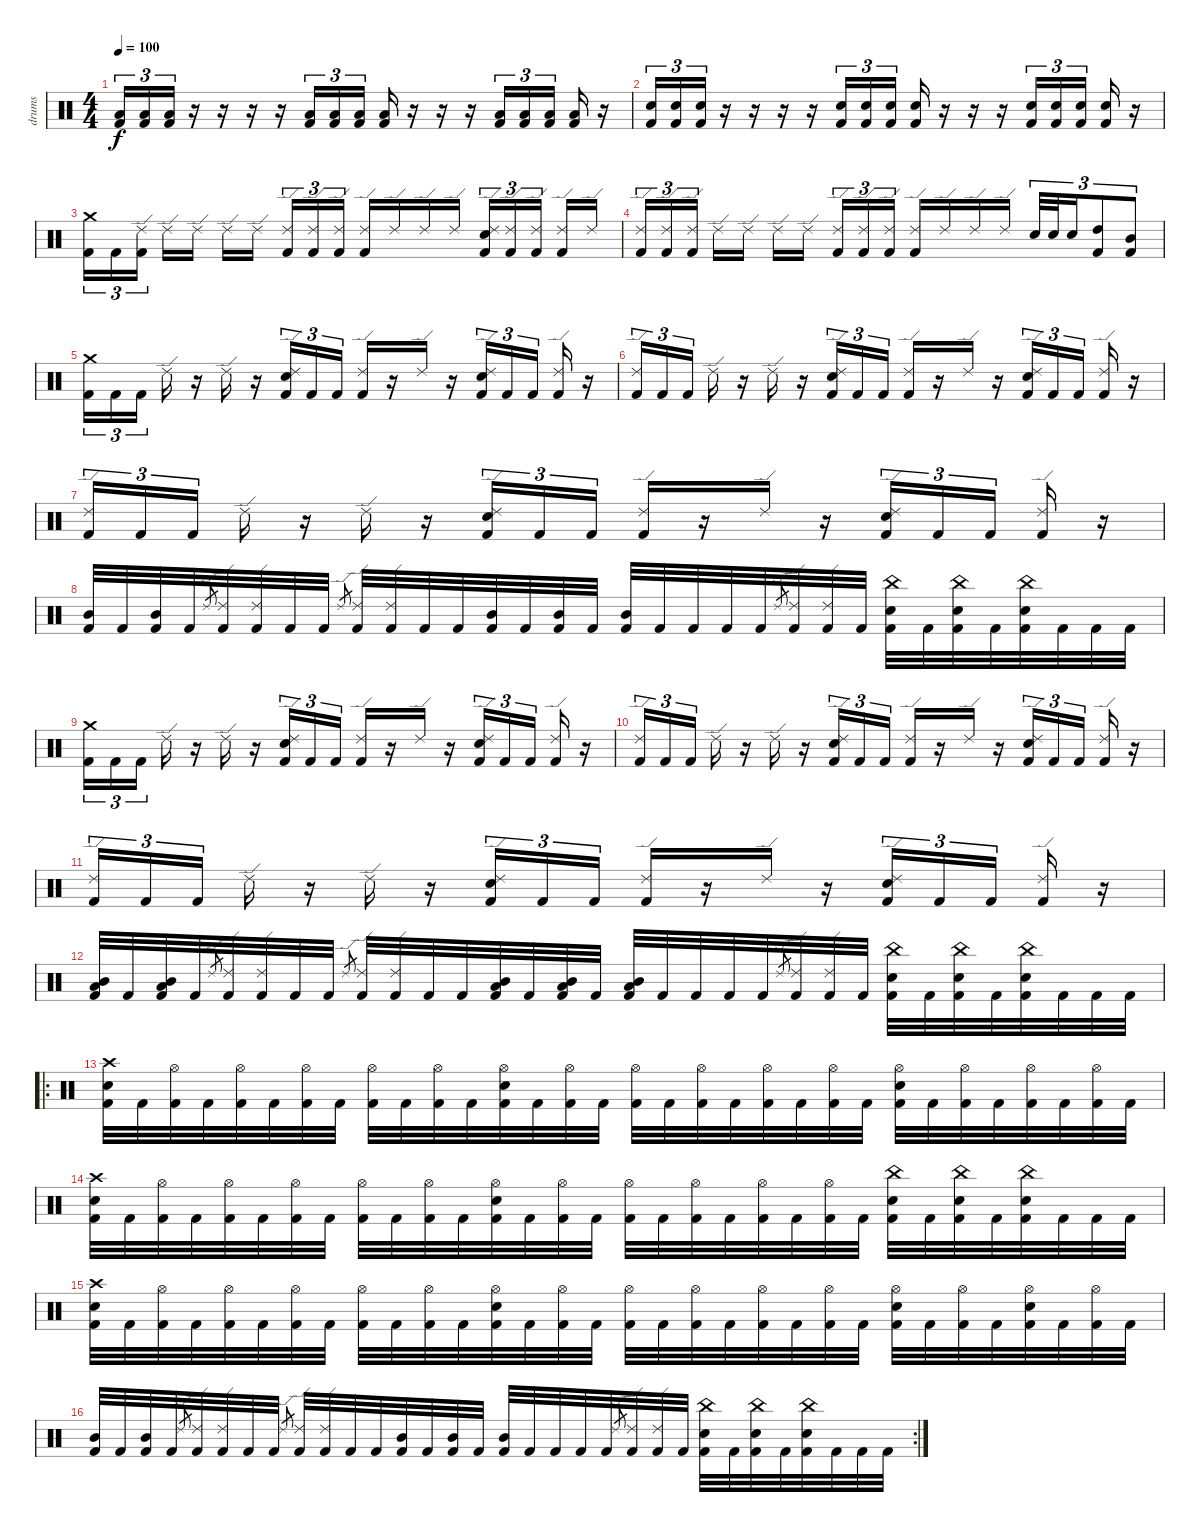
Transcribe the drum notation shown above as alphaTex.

\track ("drums" "drums") {instrument percussion}
\staff {score}
\articulation defaults
\ts (4 4)
\tempo 100
\clef neutral
\ks c
("Kick (hit) 2" "Low Tom (hit)").16{tu (3 2) dy f} ("Kick (hit) 2" "Low Tom (hit)").16{tu (3 2)} ("Kick (hit) 2" "Low Tom (hit)").16{tu (3 2)} r.16 r.16 r.16 r.16 ("Kick (hit) 2" "Low Tom (hit)").16{tu (3 2)} ("Kick (hit) 2" "Low Tom (hit)").16{tu (3 2)} ("Kick (hit) 2" "Low Tom (hit)").16{tu (3 2)} ("Kick (hit) 2" "Low Tom (hit)").16 r.16 r.16 r.16 ("Kick (hit) 2" "Low Tom (hit)").16{tu (3 2)} ("Kick (hit) 2" "Low Tom (hit)").16{tu (3 2)} ("Kick (hit) 2" "Low Tom (hit)").16{tu (3 2)} ("Kick (hit) 2" "Low Tom (hit)").16 r.16 |
("Kick (hit) 2" "Electric Snare (hit)").16{tu (3 2)} ("Kick (hit) 2" "Electric Snare (hit)").16{tu (3 2)} ("Kick (hit) 2" "Electric Snare (hit)").16{tu (3 2)} r.16 r.16 r.16 r.16 ("Kick (hit) 2" "Electric Snare (hit)").16{tu (3 2)} ("Kick (hit) 2" "Electric Snare (hit)").16{tu (3 2)} ("Kick (hit) 2" "Electric Snare (hit)").16{tu (3 2)} ("Kick (hit) 2" "Electric Snare (hit)").16 r.16 r.16 r.16 ("Kick (hit) 2" "Electric Snare (hit)").16{tu (3 2)} ("Kick (hit) 2" "Electric Snare (hit)").16{tu (3 2)} ("Kick (hit) 2" "Electric Snare (hit)").16{tu (3 2)} ("Kick (hit) 2" "Electric Snare (hit)").16 r.16 |
("Kick (hit) 2" "Crash medium (hit)").16{tu (3 2)} "Kick (hit) 2".16{tu (3 2)} ("Kick (hit) 2" "Ride (edge) 2").16{tu (3 2)} "Ride (edge) 2".16 "Ride (edge) 2".16 "Ride (edge) 2".16 "Ride (edge) 2".16 ("Kick (hit) 2" "Ride (edge) 2").16{tu (3 2)} ("Kick (hit) 2" "Ride (edge) 2").16{tu (3 2)} ("Kick (hit) 2" "Ride (edge) 2").16{tu (3 2)} ("Kick (hit) 2" "Ride (edge) 2").16 "Ride (edge) 2".16 "Ride (edge) 2".16 "Ride (edge) 2".16 ("Kick (hit) 2" "Electric Snare (hit)" "Ride (edge) 2").16{tu (3 2)} ("Kick (hit) 2" "Ride (edge) 2").16{tu (3 2)} ("Kick (hit) 2" "Ride (edge) 2").16{tu (3 2)} ("Kick (hit) 2" "Ride (edge) 2").16 "Ride (edge) 2".16 |
("Kick (hit) 2" "Ride (edge) 2").16{tu (3 2)} ("Kick (hit) 2" "Ride (edge) 2").16{tu (3 2)} ("Kick (hit) 2" "Ride (edge) 2").16{tu (3 2)} "Ride (edge) 2".16 "Ride (edge) 2".16 "Ride (edge) 2".16 "Ride (edge) 2".16 ("Kick (hit) 2" "Ride (edge) 2").16{tu (3 2)} ("Kick (hit) 2" "Ride (edge) 2").16{tu (3 2)} ("Kick (hit) 2" "Ride (edge) 2").16{tu (3 2)} ("Kick (hit) 2" "Ride (edge) 2").16 "Ride (edge) 2".16 "Ride (edge) 2".16 "Ride (edge) 2".16 "Electric Snare (hit)".32{tu (3 2)} "Electric Snare (hit)".32{tu (3 2)} "Electric Snare (hit)".16{tu (3 2)} ("Kick (hit) 2" "High Tom (hit)").8{tu (3 2)} ("Kick (hit) 2" "Mid Tom (hit)").8{tu (3 2)} |
\section ("" "")
("Kick (hit) 2" "Crash medium (hit)").16{tu (3 2)} "Kick (hit) 2".16{tu (3 2)} "Kick (hit) 2".16{tu (3 2)} "Ride (edge) 2".16 r.16 "Ride (edge) 2".16 r.16 ("Kick (hit) 2" "Electric Snare (hit)" "Ride (edge) 2").16{tu (3 2)} "Kick (hit) 2".16{tu (3 2)} "Kick (hit) 2".16{tu (3 2)} ("Kick (hit) 2" "Ride (edge) 2").16 r.16 "Ride (edge) 2".16 r.16 ("Kick (hit) 2" "Electric Snare (hit)" "Ride (edge) 2").16{tu (3 2)} "Kick (hit) 2".16{tu (3 2)} "Kick (hit) 2".16{tu (3 2)} ("Kick (hit) 2" "Ride (edge) 2").16 r.16 |
("Kick (hit) 2" "Ride (edge) 2").16{tu (3 2)} "Kick (hit) 2".16{tu (3 2)} "Kick (hit) 2".16{tu (3 2)} "Ride (edge) 2".16 r.16 "Ride (edge) 2".16 r.16 ("Kick (hit) 2" "Electric Snare (hit)" "Ride (edge) 2").16{tu (3 2)} "Kick (hit) 2".16{tu (3 2)} "Kick (hit) 2".16{tu (3 2)} ("Kick (hit) 2" "Ride (edge) 2").16 r.16 "Ride (edge) 2".16 r.16 ("Kick (hit) 2" "Electric Snare (hit)" "Ride (edge) 2").16{tu (3 2)} "Kick (hit) 2".16{tu (3 2)} "Kick (hit) 2".16{tu (3 2)} ("Kick (hit) 2" "Ride (edge) 2").16 r.16 |
("Kick (hit) 2" "Ride (edge) 2").16{tu (3 2)} "Kick (hit) 2".16{tu (3 2)} "Kick (hit) 2".16{tu (3 2)} "Ride (edge) 2".16 r.16 "Ride (edge) 2".16 r.16 ("Kick (hit) 2" "Electric Snare (hit)" "Ride (edge) 2").16{tu (3 2)} "Kick (hit) 2".16{tu (3 2)} "Kick (hit) 2".16{tu (3 2)} ("Kick (hit) 2" "Ride (edge) 2").16 r.16 "Ride (edge) 2".16 r.16 ("Kick (hit) 2" "Electric Snare (hit)" "Ride (edge) 2").16{tu (3 2)} "Kick (hit) 2".16{tu (3 2)} "Kick (hit) 2".16{tu (3 2)} ("Kick (hit) 2" "Ride (edge) 2").16 r.16 |
("Kick (hit) 2" "Mid Tom (hit)").32 "Kick (hit) 2".32 ("Kick (hit) 2" "Mid Tom (hit)").32 "Kick (hit) 2".32 "Ride (edge) 2".8{gr} ("Kick (hit) 2" "Ride (edge) 2").32 ("Kick (hit) 2" "Ride (edge) 2").32 "Kick (hit) 2".32 "Kick (hit) 2".32 "Ride (edge) 2".8{gr} ("Kick (hit) 2" "Ride (edge) 2").32 ("Kick (hit) 2" "Ride (edge) 2").32 "Kick (hit) 2".32 "Kick (hit) 2".32 ("Kick (hit) 2" "Mid Tom (hit)").32 "Kick (hit) 2".32 ("Kick (hit) 2" "Mid Tom (hit)").32 "Kick (hit) 2".32 ("Kick (hit) 2" "Mid Tom (hit)").32 "Kick (hit) 2".32 "Kick (hit) 2".32 "Kick (hit) 2".32 "Kick (hit) 2".32 "Ride (edge) 2".8{gr} ("Kick (hit) 2" "Ride (edge) 2").32 ("Kick (hit) 2" "Ride (edge) 2").32 "Kick (hit) 2".32 ("Kick (hit) 2" "Electric Snare (hit)" "China (hit)").32 "Kick (hit) 2".32 ("Kick (hit) 2" "Electric Snare (hit)" "China (hit)").32 "Kick (hit) 2".32 ("Kick (hit) 2" "Electric Snare (hit)" "China (hit)").32 "Kick (hit) 2".32 "Kick (hit) 2".32 "Kick (hit) 2".32 |
("Kick (hit) 2" "Crash medium (hit)").16{tu (3 2)} "Kick (hit) 2".16{tu (3 2)} "Kick (hit) 2".16{tu (3 2)} "Ride (edge) 2".16 r.16 "Ride (edge) 2".16 r.16 ("Kick (hit) 2" "Electric Snare (hit)" "Ride (edge) 2").16{tu (3 2)} "Kick (hit) 2".16{tu (3 2)} "Kick (hit) 2".16{tu (3 2)} ("Kick (hit) 2" "Ride (edge) 2").16 r.16 "Ride (edge) 2".16 r.16 ("Kick (hit) 2" "Electric Snare (hit)" "Ride (edge) 2").16{tu (3 2)} "Kick (hit) 2".16{tu (3 2)} "Kick (hit) 2".16{tu (3 2)} ("Kick (hit) 2" "Ride (edge) 2").16 r.16 |
("Kick (hit) 2" "Ride (edge) 2").16{tu (3 2)} "Kick (hit) 2".16{tu (3 2)} "Kick (hit) 2".16{tu (3 2)} "Ride (edge) 2".16 r.16 "Ride (edge) 2".16 r.16 ("Kick (hit) 2" "Electric Snare (hit)" "Ride (edge) 2").16{tu (3 2)} "Kick (hit) 2".16{tu (3 2)} "Kick (hit) 2".16{tu (3 2)} ("Kick (hit) 2" "Ride (edge) 2").16 r.16 "Ride (edge) 2".16 r.16 ("Kick (hit) 2" "Electric Snare (hit)" "Ride (edge) 2").16{tu (3 2)} "Kick (hit) 2".16{tu (3 2)} "Kick (hit) 2".16{tu (3 2)} ("Kick (hit) 2" "Ride (edge) 2").16 r.16 |
("Kick (hit) 2" "Ride (edge) 2").16{tu (3 2)} "Kick (hit) 2".16{tu (3 2)} "Kick (hit) 2".16{tu (3 2)} "Ride (edge) 2".16 r.16 "Ride (edge) 2".16 r.16 ("Kick (hit) 2" "Electric Snare (hit)" "Ride (edge) 2").16{tu (3 2)} "Kick (hit) 2".16{tu (3 2)} "Kick (hit) 2".16{tu (3 2)} ("Kick (hit) 2" "Ride (edge) 2").16 r.16 "Ride (edge) 2".16 r.16 ("Kick (hit) 2" "Electric Snare (hit)" "Ride (edge) 2").16{tu (3 2)} "Kick (hit) 2".16{tu (3 2)} "Kick (hit) 2".16{tu (3 2)} ("Kick (hit) 2" "Ride (edge) 2").16 r.16 |
("Kick (hit) 2" "Mid Tom (hit)" "Low Tom (hit)").32 "Kick (hit) 2".32 ("Kick (hit) 2" "Mid Tom (hit)" "Low Tom (hit)").32 "Kick (hit) 2".32 "Ride (edge) 2".8{gr} ("Kick (hit) 2" "Ride (edge) 2").32 ("Kick (hit) 2" "Ride (edge) 2").32 "Kick (hit) 2".32 "Kick (hit) 2".32 "Ride (edge) 2".8{gr} ("Kick (hit) 2" "Ride (edge) 2").32 ("Kick (hit) 2" "Ride (edge) 2").32 "Kick (hit) 2".32 "Kick (hit) 2".32 ("Kick (hit) 2" "Mid Tom (hit)" "Low Tom (hit)").32 "Kick (hit) 2".32 ("Kick (hit) 2" "Mid Tom (hit)" "Low Tom (hit)").32 "Kick (hit) 2".32 ("Kick (hit) 2" "Mid Tom (hit)" "Low Tom (hit)").32 "Kick (hit) 2".32 "Kick (hit) 2".32 "Kick (hit) 2".32 "Kick (hit) 2".32 "Ride (edge) 2".8{gr} ("Kick (hit) 2" "Ride (edge) 2").32 ("Kick (hit) 2" "Ride (edge) 2").32 "Kick (hit) 2".32 ("Kick (hit) 2" "Electric Snare (hit)" "China (hit)").32 "Kick (hit) 2".32 ("Kick (hit) 2" "Electric Snare (hit)" "China (hit)").32 "Kick (hit) 2".32 ("Kick (hit) 2" "Electric Snare (hit)" "China (hit)").32 "Kick (hit) 2".32 "Kick (hit) 2".32 "Kick (hit) 2".32 |
\ro
\section ("" "")
("Kick (hit) 2" "Electric Snare (hit)" "Crash high (hit)").32 "Kick (hit) 2".32 ("Kick (hit) 2" "Hi-Hat (open)").32 "Kick (hit) 2".32 ("Kick (hit) 2" "Hi-Hat (open)").32 "Kick (hit) 2".32 ("Kick (hit) 2" "Hi-Hat (open)").32 "Kick (hit) 2".32 ("Kick (hit) 2" "Hi-Hat (open)").32 "Kick (hit) 2".32 ("Kick (hit) 2" "Hi-Hat (open)").32 "Kick (hit) 2".32 ("Kick (hit) 2" "Electric Snare (hit)" "Hi-Hat (open)").32 "Kick (hit) 2".32 ("Kick (hit) 2" "Hi-Hat (open)").32 "Kick (hit) 2".32 ("Kick (hit) 2" "Hi-Hat (open)").32 "Kick (hit) 2".32 ("Kick (hit) 2" "Hi-Hat (open)").32 "Kick (hit) 2".32 ("Kick (hit) 2" "Hi-Hat (open)").32 "Kick (hit) 2".32 ("Kick (hit) 2" "Hi-Hat (open)").32 "Kick (hit) 2".32 ("Kick (hit) 2" "Electric Snare (hit)" "Hi-Hat (open)").32 "Kick (hit) 2".32 ("Kick (hit) 2" "Hi-Hat (open)").32 "Kick (hit) 2".32 ("Kick (hit) 2" "Hi-Hat (open)").32 "Kick (hit) 2".32 ("Kick (hit) 2" "Hi-Hat (open)").32 "Kick (hit) 2".32 |
("Kick (hit) 2" "Electric Snare (hit)" "Crash high (hit)").32 "Kick (hit) 2".32 ("Kick (hit) 2" "Hi-Hat (open)").32 "Kick (hit) 2".32 ("Kick (hit) 2" "Hi-Hat (open)").32 "Kick (hit) 2".32 ("Kick (hit) 2" "Hi-Hat (open)").32 "Kick (hit) 2".32 ("Kick (hit) 2" "Hi-Hat (open)").32 "Kick (hit) 2".32 ("Kick (hit) 2" "Hi-Hat (open)").32 "Kick (hit) 2".32 ("Kick (hit) 2" "Electric Snare (hit)" "Hi-Hat (open)").32 "Kick (hit) 2".32 ("Kick (hit) 2" "Hi-Hat (open)").32 "Kick (hit) 2".32 ("Kick (hit) 2" "Hi-Hat (open)").32 "Kick (hit) 2".32 ("Kick (hit) 2" "Hi-Hat (open)").32 "Kick (hit) 2".32 ("Kick (hit) 2" "Hi-Hat (open)").32 "Kick (hit) 2".32 ("Kick (hit) 2" "Hi-Hat (open)").32 "Kick (hit) 2".32 ("Kick (hit) 2" "Electric Snare (hit)" "China (hit)").32 "Kick (hit) 2".32 ("Kick (hit) 2" "Electric Snare (hit)" "China (hit)").32 "Kick (hit) 2".32 ("Kick (hit) 2" "Electric Snare (hit)" "China (hit)").32 "Kick (hit) 2".32 "Kick (hit) 2".32 "Kick (hit) 2".32 |
("Kick (hit) 2" "Electric Snare (hit)" "Crash high (hit)").32 "Kick (hit) 2".32 ("Kick (hit) 2" "Hi-Hat (open)").32 "Kick (hit) 2".32 ("Kick (hit) 2" "Hi-Hat (open)").32 "Kick (hit) 2".32 ("Kick (hit) 2" "Hi-Hat (open)").32 "Kick (hit) 2".32 ("Kick (hit) 2" "Hi-Hat (open)").32 "Kick (hit) 2".32 ("Kick (hit) 2" "Hi-Hat (open)").32 "Kick (hit) 2".32 ("Kick (hit) 2" "Electric Snare (hit)" "Hi-Hat (open)").32 "Kick (hit) 2".32 ("Kick (hit) 2" "Hi-Hat (open)").32 "Kick (hit) 2".32 ("Kick (hit) 2" "Hi-Hat (open)").32 "Kick (hit) 2".32 ("Kick (hit) 2" "Hi-Hat (open)").32 "Kick (hit) 2".32 ("Kick (hit) 2" "Hi-Hat (open)").32 "Kick (hit) 2".32 ("Kick (hit) 2" "Hi-Hat (open)").32 "Kick (hit) 2".32 ("Kick (hit) 2" "Electric Snare (hit)" "Hi-Hat (open)").32 "Kick (hit) 2".32 ("Kick (hit) 2" "Hi-Hat (open)").32 "Kick (hit) 2".32 ("Kick (hit) 2" "Electric Snare (hit)" "Hi-Hat (open)").32 "Kick (hit) 2".32 ("Kick (hit) 2" "Hi-Hat (open)").32 "Kick (hit) 2".32 |
\rc 2
("Kick (hit) 2" "Mid Tom (hit)").32 "Kick (hit) 2".32 ("Kick (hit) 2" "Mid Tom (hit)").32 "Kick (hit) 2".32 "Ride (edge) 2".8{gr} ("Kick (hit) 2" "Ride (edge) 2").32 ("Kick (hit) 2" "Ride (edge) 2").32 "Kick (hit) 2".32 "Kick (hit) 2".32 "Ride (edge) 2".8{gr} ("Kick (hit) 2" "Ride (edge) 2").32 ("Kick (hit) 2" "Ride (edge) 2").32 "Kick (hit) 2".32 "Kick (hit) 2".32 ("Kick (hit) 2" "Mid Tom (hit)").32 "Kick (hit) 2".32 ("Kick (hit) 2" "Mid Tom (hit)").32 "Kick (hit) 2".32 ("Kick (hit) 2" "Mid Tom (hit)").32 "Kick (hit) 2".32 "Kick (hit) 2".32 "Kick (hit) 2".32 "Kick (hit) 2".32 "Ride (edge) 2".8{gr} ("Kick (hit) 2" "Ride (edge) 2").32 ("Kick (hit) 2" "Ride (edge) 2").32 "Kick (hit) 2".32 ("Kick (hit) 2" "Electric Snare (hit)" "China (hit)").32 "Kick (hit) 2".32 ("Kick (hit) 2" "Electric Snare (hit)" "China (hit)").32 "Kick (hit) 2".32 ("Kick (hit) 2" "Electric Snare (hit)" "China (hit)").32 "Kick (hit) 2".32 "Kick (hit) 2".32 "Kick (hit) 2".32
